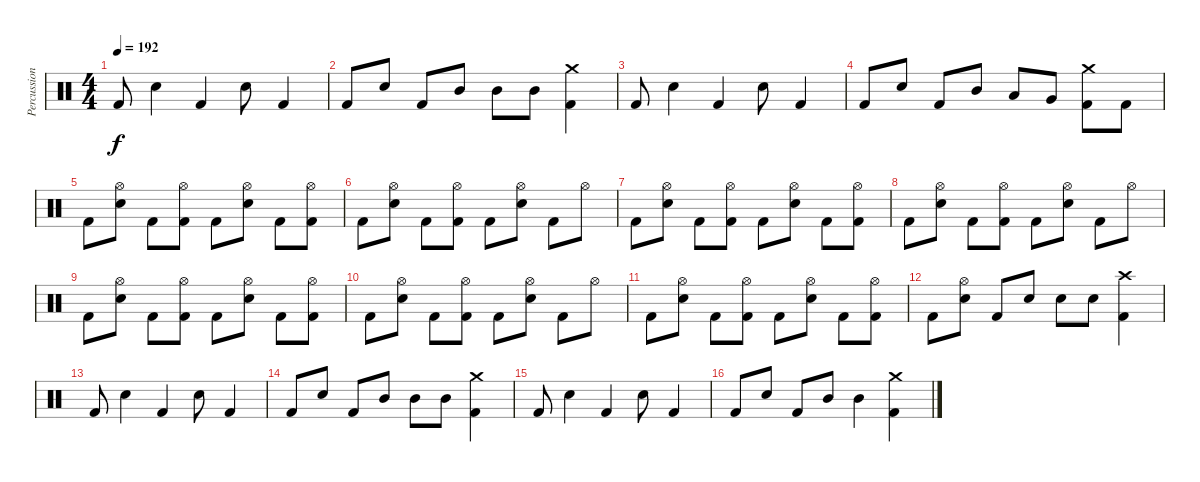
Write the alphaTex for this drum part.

\track ("Percussion" "Percussion") {instrument percussion}
\staff {score}
\articulation defaults
\ts (4 4)
\tempo 192
\clef neutral
\ks c "Kick (hit) 2".8{dy f} "Electric Snare (hit)".4 "Kick (hit) 2".4 "Electric Snare (hit)".8 "Kick (hit) 2".4
|
"Kick (hit) 2".8 "Electric Snare (hit)".8 "Kick (hit) 2".8 "Mid Tom (hit)".8 "Mid Tom (hit)".8 "Mid Tom (hit)".8 ("Crash medium (hit)" "Kick (hit) 2").4 |
"Kick (hit) 2".8 "Electric Snare (hit)".4 "Kick (hit) 2".4 "Electric Snare (hit)".8 "Kick (hit) 2".4 |
"Kick (hit) 2".8 "Electric Snare (hit)".8 "Kick (hit) 2".8 "Mid Tom (hit)".8 "Low Tom (hit)".8 "Very Low Tom (hit)".8 ("Crash medium (hit)" "Kick (hit) 2").8 "Kick (hit) 2".8 |
"Kick (hit) 2".8 ("Hi-Hat (open)" "Electric Snare (hit)").8 "Kick (hit) 2".8 ("Hi-Hat (open)" "Kick (hit) 2").8 "Kick (hit) 2".8 ("Hi-Hat (open)" "Electric Snare (hit)").8 "Kick (hit) 2".8 ("Hi-Hat (open)" "Kick (hit) 2").8 |
"Kick (hit) 2".8 ("Hi-Hat (open)" "Electric Snare (hit)").8 "Kick (hit) 2".8 ("Hi-Hat (open)" "Kick (hit) 2").8 "Kick (hit) 2".8 ("Hi-Hat (open)" "Electric Snare (hit)").8 "Kick (hit) 2".8 "Hi-Hat (open)".8 |
"Kick (hit) 2".8 ("Hi-Hat (open)" "Electric Snare (hit)").8 "Kick (hit) 2".8 ("Hi-Hat (open)" "Kick (hit) 2").8 "Kick (hit) 2".8 ("Hi-Hat (open)" "Electric Snare (hit)").8 "Kick (hit) 2".8 ("Hi-Hat (open)" "Kick (hit) 2").8 |
"Kick (hit) 2".8 ("Hi-Hat (open)" "Electric Snare (hit)").8 "Kick (hit) 2".8 ("Hi-Hat (open)" "Kick (hit) 2").8 "Kick (hit) 2".8 ("Hi-Hat (open)" "Electric Snare (hit)").8 "Kick (hit) 2".8 "Hi-Hat (open)".8 |
"Kick (hit) 2".8 ("Hi-Hat (open)" "Electric Snare (hit)").8 "Kick (hit) 2".8 ("Hi-Hat (open)" "Kick (hit) 2").8 "Kick (hit) 2".8 ("Hi-Hat (open)" "Electric Snare (hit)").8 "Kick (hit) 2".8 ("Hi-Hat (open)" "Kick (hit) 2").8 |
"Kick (hit) 2".8 ("Hi-Hat (open)" "Electric Snare (hit)").8 "Kick (hit) 2".8 ("Hi-Hat (open)" "Kick (hit) 2").8 "Kick (hit) 2".8 ("Hi-Hat (open)" "Electric Snare (hit)").8 "Kick (hit) 2".8 "Hi-Hat (open)".8 |
"Kick (hit) 2".8 ("Hi-Hat (open)" "Electric Snare (hit)").8 "Kick (hit) 2".8 ("Hi-Hat (open)" "Kick (hit) 2").8 "Kick (hit) 2".8 ("Hi-Hat (open)" "Electric Snare (hit)").8 "Kick (hit) 2".8 ("Hi-Hat (open)" "Kick (hit) 2").8 |
"Kick (hit) 2".8 ("Hi-Hat (open)" "Electric Snare (hit)").8 "Kick (hit) 2".8 "Electric Snare (hit)".8 "Electric Snare (hit)".8 "Electric Snare (hit)".8 ("Crash high (hit)" "Kick (hit) 2").4 |
"Kick (hit) 2".8 "Electric Snare (hit)".4 "Kick (hit) 2".4 "Electric Snare (hit)".8 "Kick (hit) 2".4 |
"Kick (hit) 2".8 "Electric Snare (hit)".8 "Kick (hit) 2".8 "Mid Tom (hit)".8 "Mid Tom (hit)".8 "Mid Tom (hit)".8 ("Crash medium (hit)" "Kick (hit) 2").4 |
"Kick (hit) 2".8 "Electric Snare (hit)".4 "Kick (hit) 2".4 "Electric Snare (hit)".8 "Kick (hit) 2".4 |
"Kick (hit) 2".8 "Electric Snare (hit)".8 "Kick (hit) 2".8 "Mid Tom (hit)".8 "Mid Tom (hit)".4 ("Crash medium (hit)" "Kick (hit) 2").4
